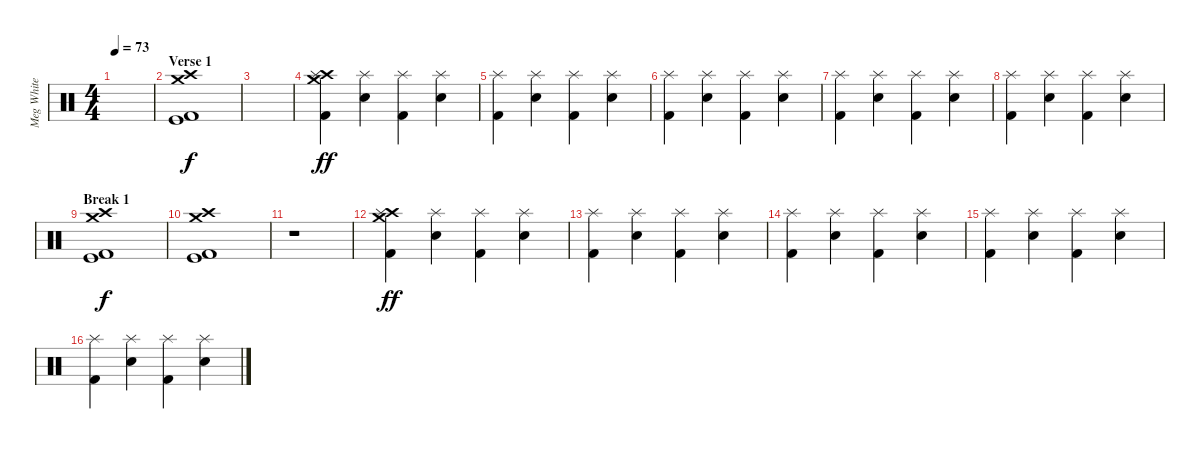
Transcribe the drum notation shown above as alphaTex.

\track ("Meg White" "Meg White") {instrument percussion}
\staff {score}
\articulation defaults
\ts (4 4)
\tempo 73
\clef neutral
\ks c
|
\section ("" "Verse 1")
("Crash high (hit)" "Crash medium (hit)" "Kick (hit) 2" "Kick (hit)").1 |
|
("Crash high (hit)" "Crash medium (hit)" "Kick (hit) 2" "Splash (hit)").4{dy ff} ("Snare (hit) 2" "Splash (hit)").4 ("Kick (hit) 2" "Splash (hit)").4 ("Snare (hit) 2" "Splash (hit)").4 |
("Kick (hit) 2" "Splash (hit)").4 ("Snare (hit) 2" "Splash (hit)").4 ("Kick (hit) 2" "Splash (hit)").4 ("Snare (hit) 2" "Splash (hit)").4 |
("Kick (hit) 2" "Splash (hit)").4 ("Snare (hit) 2" "Splash (hit)").4 ("Kick (hit) 2" "Splash (hit)").4 ("Snare (hit) 2" "Splash (hit)").4 |
("Kick (hit) 2" "Splash (hit)").4 ("Snare (hit) 2" "Splash (hit)").4 ("Kick (hit) 2" "Splash (hit)").4 ("Snare (hit) 2" "Splash (hit)").4 |
("Kick (hit) 2" "Splash (hit)").4 ("Snare (hit) 2" "Splash (hit)").4 ("Kick (hit) 2" "Splash (hit)").4 ("Snare (hit) 2" "Splash (hit)").4 |
\section ("" "Break 1")
("Crash high (hit)" "Crash medium (hit)" "Kick (hit) 2" "Kick (hit)").1{dy f} |
("Crash high (hit)" "Crash medium (hit)" "Kick (hit) 2" "Kick (hit)").1 |
r.1 |
("Crash high (hit)" "Crash medium (hit)" "Kick (hit) 2" "Splash (hit)").4{dy ff} ("Snare (hit) 2" "Splash (hit)").4 ("Kick (hit) 2" "Splash (hit)").4 ("Snare (hit) 2" "Splash (hit)").4 |
("Kick (hit) 2" "Splash (hit)").4 ("Snare (hit) 2" "Splash (hit)").4 ("Kick (hit) 2" "Splash (hit)").4 ("Snare (hit) 2" "Splash (hit)").4 |
("Kick (hit) 2" "Splash (hit)").4 ("Snare (hit) 2" "Splash (hit)").4 ("Kick (hit) 2" "Splash (hit)").4 ("Snare (hit) 2" "Splash (hit)").4 |
("Kick (hit) 2" "Splash (hit)").4 ("Snare (hit) 2" "Splash (hit)").4 ("Kick (hit) 2" "Splash (hit)").4 ("Snare (hit) 2" "Splash (hit)").4 |
("Kick (hit) 2" "Splash (hit)").4 ("Snare (hit) 2" "Splash (hit)").4 ("Kick (hit) 2" "Splash (hit)").4 ("Snare (hit) 2" "Splash (hit)").4
